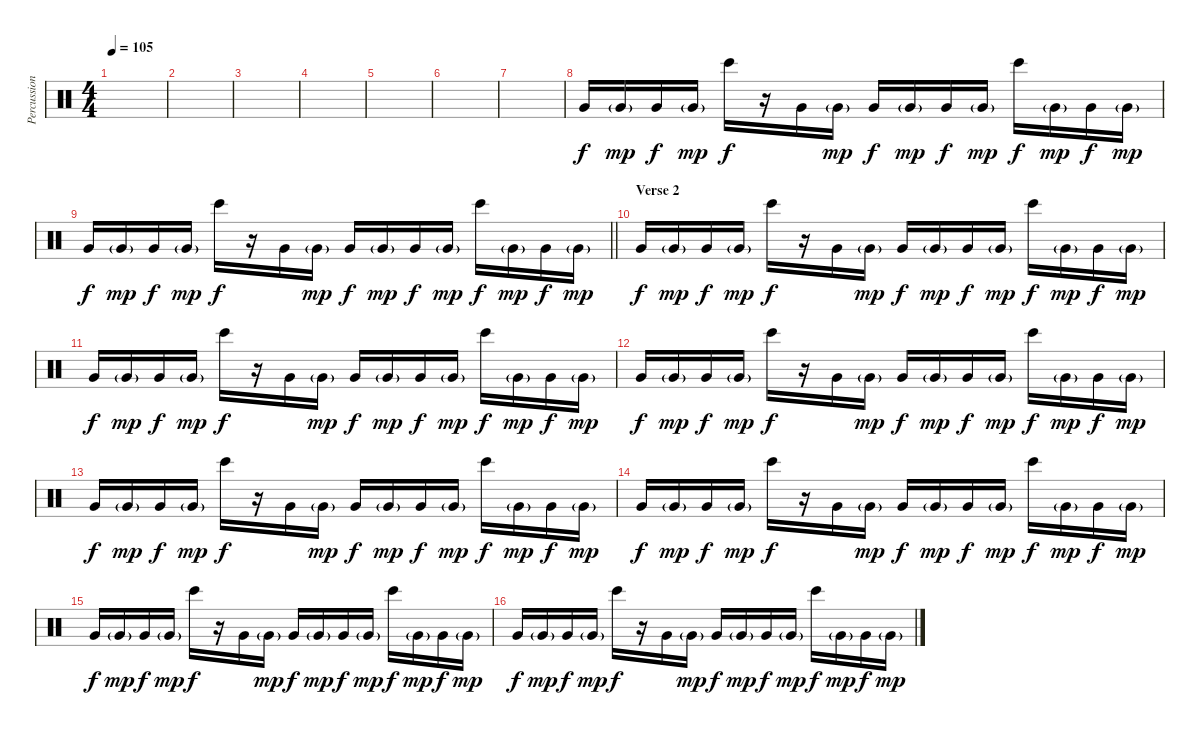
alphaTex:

\track ("Percussion" "Percussion") {instrument percussion}
\staff {score}
\articulation defaults
\ts (4 4)
\tempo 105
\clef neutral
\ks c
|
|
|
|
|
|
|
"Very Low Tom (hit)".16 "Very Low Tom (hit)"{g}.16{dy mp} "Very Low Tom (hit)".16{dy f} "Very Low Tom (hit)"{g}.16{dy mp} "Bongo High (hit)".16{dy f} r.16 "Very Low Tom (hit)".16 "Very Low Tom (hit)"{g}.16{dy mp} "Very Low Tom (hit)".16{dy f} "Very Low Tom (hit)"{g}.16{dy mp} "Very Low Tom (hit)".16{dy f} "Very Low Tom (hit)"{g}.16{dy mp} "Bongo High (hit)".16{dy f} "Very Low Tom (hit)"{g}.16{dy mp} "Very Low Tom (hit)".16{dy f} "Very Low Tom (hit)"{g}.16{dy mp} |
\barLineRight lightlight "Very Low Tom (hit)".16{dy f} "Very Low Tom (hit)"{g}.16{dy mp} "Very Low Tom (hit)".16{dy f} "Very Low Tom (hit)"{g}.16{dy mp} "Bongo High (hit)".16{dy f}
r.16 "Very Low Tom (hit)".16 "Very Low Tom (hit)"{g}.16{dy mp} "Very Low Tom (hit)".16{dy f} "Very Low Tom (hit)"{g}.16{dy mp} "Very Low Tom (hit)".16{dy f} "Very Low Tom (hit)"{g}.16{dy mp} "Bongo High (hit)".16{dy f} "Very Low Tom (hit)"{g}.16{dy mp} "Very Low Tom (hit)".16{dy f} "Very Low Tom (hit)"{g}.16{dy mp} |
\section ("" "Verse 2")
"Very Low Tom (hit)".16{dy f} "Very Low Tom (hit)"{g}.16{dy mp} "Very Low Tom (hit)".16{dy f} "Very Low Tom (hit)"{g}.16{dy mp} "Bongo High (hit)".16{dy f} r.16 "Very Low Tom (hit)".16 "Very Low Tom (hit)"{g}.16{dy mp} "Very Low Tom (hit)".16{dy f} "Very Low Tom (hit)"{g}.16{dy mp} "Very Low Tom (hit)".16{dy f} "Very Low Tom (hit)"{g}.16{dy mp} "Bongo High (hit)".16{dy f} "Very Low Tom (hit)"{g}.16{dy mp} "Very Low Tom (hit)".16{dy f} "Very Low Tom (hit)"{g}.16{dy mp} |
"Very Low Tom (hit)".16{dy f} "Very Low Tom (hit)"{g}.16{dy mp} "Very Low Tom (hit)".16{dy f} "Very Low Tom (hit)"{g}.16{dy mp} "Bongo High (hit)".16{dy f} r.16 "Very Low Tom (hit)".16 "Very Low Tom (hit)"{g}.16{dy mp} "Very Low Tom (hit)".16{dy f} "Very Low Tom (hit)"{g}.16{dy mp} "Very Low Tom (hit)".16{dy f} "Very Low Tom (hit)"{g}.16{dy mp} "Bongo High (hit)".16{dy f} "Very Low Tom (hit)"{g}.16{dy mp} "Very Low Tom (hit)".16{dy f} "Very Low Tom (hit)"{g}.16{dy mp} |
"Very Low Tom (hit)".16{dy f} "Very Low Tom (hit)"{g}.16{dy mp} "Very Low Tom (hit)".16{dy f} "Very Low Tom (hit)"{g}.16{dy mp} "Bongo High (hit)".16{dy f} r.16 "Very Low Tom (hit)".16 "Very Low Tom (hit)"{g}.16{dy mp} "Very Low Tom (hit)".16{dy f} "Very Low Tom (hit)"{g}.16{dy mp} "Very Low Tom (hit)".16{dy f} "Very Low Tom (hit)"{g}.16{dy mp} "Bongo High (hit)".16{dy f} "Very Low Tom (hit)"{g}.16{dy mp} "Very Low Tom (hit)".16{dy f} "Very Low Tom (hit)"{g}.16{dy mp} |
"Very Low Tom (hit)".16{dy f} "Very Low Tom (hit)"{g}.16{dy mp} "Very Low Tom (hit)".16{dy f} "Very Low Tom (hit)"{g}.16{dy mp} "Bongo High (hit)".16{dy f} r.16 "Very Low Tom (hit)".16 "Very Low Tom (hit)"{g}.16{dy mp} "Very Low Tom (hit)".16{dy f} "Very Low Tom (hit)"{g}.16{dy mp} "Very Low Tom (hit)".16{dy f} "Very Low Tom (hit)"{g}.16{dy mp} "Bongo High (hit)".16{dy f} "Very Low Tom (hit)"{g}.16{dy mp} "Very Low Tom (hit)".16{dy f} "Very Low Tom (hit)"{g}.16{dy mp} |
"Very Low Tom (hit)".16{dy f} "Very Low Tom (hit)"{g}.16{dy mp} "Very Low Tom (hit)".16{dy f} "Very Low Tom (hit)"{g}.16{dy mp} "Bongo High (hit)".16{dy f} r.16 "Very Low Tom (hit)".16 "Very Low Tom (hit)"{g}.16{dy mp} "Very Low Tom (hit)".16{dy f} "Very Low Tom (hit)"{g}.16{dy mp} "Very Low Tom (hit)".16{dy f} "Very Low Tom (hit)"{g}.16{dy mp} "Bongo High (hit)".16{dy f} "Very Low Tom (hit)"{g}.16{dy mp} "Very Low Tom (hit)".16{dy f} "Very Low Tom (hit)"{g}.16{dy mp} |
"Very Low Tom (hit)".16{dy f} "Very Low Tom (hit)"{g}.16{dy mp} "Very Low Tom (hit)".16{dy f} "Very Low Tom (hit)"{g}.16{dy mp} "Bongo High (hit)".16{dy f} r.16 "Very Low Tom (hit)".16 "Very Low Tom (hit)"{g}.16{dy mp} "Very Low Tom (hit)".16{dy f} "Very Low Tom (hit)"{g}.16{dy mp} "Very Low Tom (hit)".16{dy f} "Very Low Tom (hit)"{g}.16{dy mp} "Bongo High (hit)".16{dy f} "Very Low Tom (hit)"{g}.16{dy mp} "Very Low Tom (hit)".16{dy f} "Very Low Tom (hit)"{g}.16{dy mp} |
"Very Low Tom (hit)".16{dy f} "Very Low Tom (hit)"{g}.16{dy mp} "Very Low Tom (hit)".16{dy f} "Very Low Tom (hit)"{g}.16{dy mp} "Bongo High (hit)".16{dy f} r.16 "Very Low Tom (hit)".16 "Very Low Tom (hit)"{g}.16{dy mp} "Very Low Tom (hit)".16{dy f} "Very Low Tom (hit)"{g}.16{dy mp} "Very Low Tom (hit)".16{dy f} "Very Low Tom (hit)"{g}.16{dy mp} "Bongo High (hit)".16{dy f} "Very Low Tom (hit)"{g}.16{dy mp} "Very Low Tom (hit)".16{dy f} "Very Low Tom (hit)"{g}.16{dy mp}
